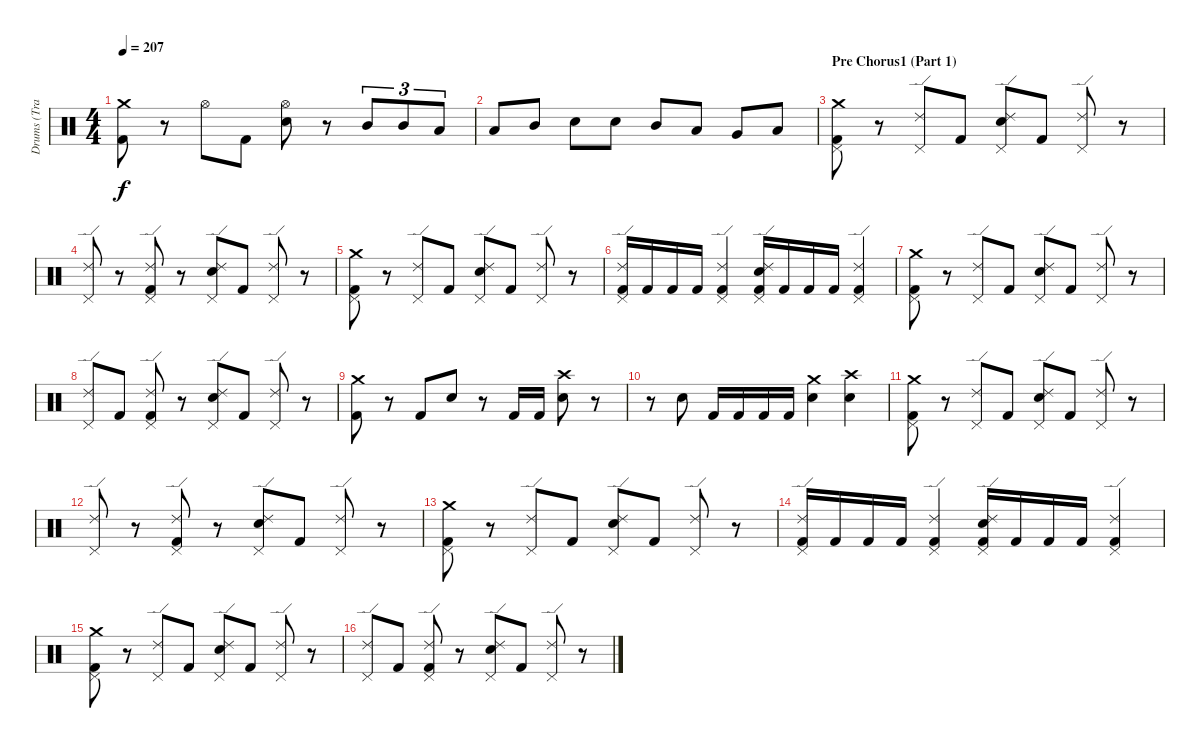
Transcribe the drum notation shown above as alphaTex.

\track ("Drums (Travis)" "Drums (Tra") {instrument percussion}
\staff {score}
\articulation defaults
\ts (4 4)
\tempo 207
\clef neutral
\ks c
("Crash medium (hit)" "Kick (hit) 2").8{dy f} r.8 "Hi-Hat (open)".8 "Kick (hit) 2".8 ("Hi-Hat (open)" "Snare (hit) 2").8 r.8 "Mid Tom (hit)".8{tu (3 2)} "Mid Tom (hit)".8{tu (3 2)} "Low Tom (hit)".8{tu (3 2)} |
"Low Tom (hit)".8 "Mid Tom (hit)".8 "Snare (hit) 2".8 "Snare (hit) 2".8 "Mid Tom (hit)".8 "Low Tom (hit)".8 "Very Low Tom (hit)".8 "Low Floor Tom (hit)".8 |
\section ("" "Pre Chorus1 (Part 1)")
("Crash medium (hit)" "Pedal Hi-Hat (hit)" "Kick (hit) 2").8 r.8 ("Ride (edge) 2" "Pedal Hi-Hat (hit)").8 "Kick (hit) 2".8 ("Ride (edge) 2" "Pedal Hi-Hat (hit)" "Snare (hit) 2").8 "Kick (hit) 2".8 ("Ride (edge) 2" "Pedal Hi-Hat (hit)").8 r.8 |
("Ride (edge) 2" "Pedal Hi-Hat (hit)").8 r.8 ("Ride (edge) 2" "Pedal Hi-Hat (hit)" "Kick (hit) 2").8 r.8 ("Ride (edge) 2" "Pedal Hi-Hat (hit)" "Snare (hit) 2").8 "Kick (hit) 2".8 ("Ride (edge) 2" "Pedal Hi-Hat (hit)").8 r.8 |
("Crash medium (hit)" "Pedal Hi-Hat (hit)" "Kick (hit) 2").8 r.8 ("Ride (edge) 2" "Pedal Hi-Hat (hit)").8 "Kick (hit) 2".8 ("Ride (edge) 2" "Pedal Hi-Hat (hit)" "Snare (hit) 2").8 "Kick (hit) 2".8 ("Ride (edge) 2" "Pedal Hi-Hat (hit)").8 r.8 |
("Ride (edge) 2" "Pedal Hi-Hat (hit)" "Kick (hit) 2").16 "Kick (hit) 2".16 "Kick (hit) 2".16 "Kick (hit) 2".16 ("Ride (edge) 2" "Pedal Hi-Hat (hit)" "Kick (hit) 2").4 ("Ride (edge) 2" "Pedal Hi-Hat (hit)" "Snare (hit) 2" "Kick (hit) 2").16 "Kick (hit) 2".16 "Kick (hit) 2".16 "Kick (hit) 2".16 ("Ride (edge) 2" "Pedal Hi-Hat (hit)" "Kick (hit) 2").4 |
("Crash medium (hit)" "Pedal Hi-Hat (hit)" "Kick (hit) 2").8 r.8 ("Ride (edge) 2" "Pedal Hi-Hat (hit)").8 "Kick (hit) 2".8 ("Ride (edge) 2" "Pedal Hi-Hat (hit)" "Snare (hit) 2").8 "Kick (hit) 2".8 ("Ride (edge) 2" "Pedal Hi-Hat (hit)").8 r.8 |
("Ride (edge) 2" "Pedal Hi-Hat (hit)").8 "Kick (hit) 2".8 ("Ride (edge) 2" "Pedal Hi-Hat (hit)" "Kick (hit) 2").8 r.8 ("Ride (edge) 2" "Pedal Hi-Hat (hit)" "Snare (hit) 2").8 "Kick (hit) 2".8 ("Ride (edge) 2" "Pedal Hi-Hat (hit)").8 r.8 |
("Crash medium (hit)" "Kick (hit) 2").8 r.8 "Kick (hit) 2".8 "Snare (hit) 2".8 r.8 "Kick (hit) 2".16 "Kick (hit) 2".16 ("Crash high (hit)" "Snare (hit) 2").8 r.8 |
r.8 "Snare (hit) 2".8 "Kick (hit) 2".16 "Kick (hit) 2".16 "Kick (hit) 2".16 "Kick (hit) 2".16 ("Crash medium (hit)" "Snare (hit) 2").4 ("Crash high (hit)" "Snare (hit) 2").4 |
("Crash medium (hit)" "Pedal Hi-Hat (hit)" "Kick (hit) 2").8 r.8 ("Ride (edge) 2" "Pedal Hi-Hat (hit)").8 "Kick (hit) 2".8 ("Ride (edge) 2" "Pedal Hi-Hat (hit)" "Snare (hit) 2").8 "Kick (hit) 2".8 ("Ride (edge) 2" "Pedal Hi-Hat (hit)").8 r.8 |
("Ride (edge) 2" "Pedal Hi-Hat (hit)").8 r.8 ("Ride (edge) 2" "Pedal Hi-Hat (hit)" "Kick (hit) 2").8 r.8 ("Ride (edge) 2" "Pedal Hi-Hat (hit)" "Snare (hit) 2").8 "Kick (hit) 2".8 ("Ride (edge) 2" "Pedal Hi-Hat (hit)").8 r.8 |
("Crash medium (hit)" "Pedal Hi-Hat (hit)" "Kick (hit) 2").8 r.8 ("Ride (edge) 2" "Pedal Hi-Hat (hit)").8 "Kick (hit) 2".8 ("Ride (edge) 2" "Pedal Hi-Hat (hit)" "Snare (hit) 2").8 "Kick (hit) 2".8 ("Ride (edge) 2" "Pedal Hi-Hat (hit)").8 r.8 |
("Ride (edge) 2" "Pedal Hi-Hat (hit)" "Kick (hit) 2").16 "Kick (hit) 2".16 "Kick (hit) 2".16 "Kick (hit) 2".16 ("Ride (edge) 2" "Pedal Hi-Hat (hit)" "Kick (hit) 2").4 ("Ride (edge) 2" "Pedal Hi-Hat (hit)" "Snare (hit) 2" "Kick (hit) 2").16 "Kick (hit) 2".16 "Kick (hit) 2".16 "Kick (hit) 2".16 ("Ride (edge) 2" "Pedal Hi-Hat (hit)" "Kick (hit) 2").4 |
("Crash medium (hit)" "Pedal Hi-Hat (hit)" "Kick (hit) 2").8 r.8 ("Ride (edge) 2" "Pedal Hi-Hat (hit)").8 "Kick (hit) 2".8 ("Ride (edge) 2" "Pedal Hi-Hat (hit)" "Snare (hit) 2").8 "Kick (hit) 2".8 ("Ride (edge) 2" "Pedal Hi-Hat (hit)").8 r.8 |
("Ride (edge) 2" "Pedal Hi-Hat (hit)").8 "Kick (hit) 2".8 ("Ride (edge) 2" "Pedal Hi-Hat (hit)" "Kick (hit) 2").8 r.8 ("Ride (edge) 2" "Pedal Hi-Hat (hit)" "Snare (hit) 2").8 "Kick (hit) 2".8 ("Ride (edge) 2" "Pedal Hi-Hat (hit)").8 r.8
